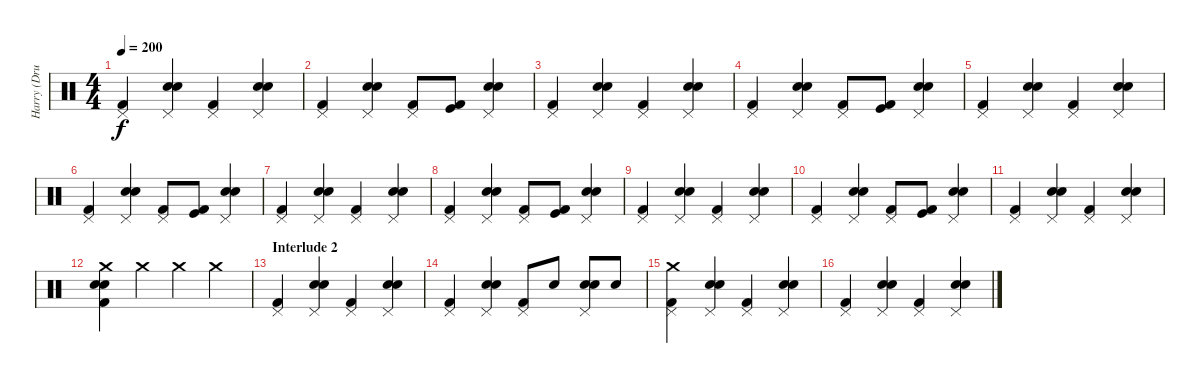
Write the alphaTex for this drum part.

\track ("Harry (Drums)" "Harry (Dru") {instrument percussion}
\staff {score}
\articulation defaults
\ts (4 4)
\tempo 200
\clef neutral
\ks c
("Kick (hit) 2" "Pedal Hi-Hat (hit)").4{dy f} ("Snare (hit) 2" "Electric Snare (hit)" "Pedal Hi-Hat (hit)").4 ("Kick (hit) 2" "Pedal Hi-Hat (hit)").4 ("Snare (hit) 2" "Electric Snare (hit)" "Pedal Hi-Hat (hit)").4 |
("Kick (hit) 2" "Pedal Hi-Hat (hit)").4 ("Snare (hit) 2" "Electric Snare (hit)" "Pedal Hi-Hat (hit)").4 ("Kick (hit) 2" "Pedal Hi-Hat (hit)").8 ("Kick (hit) 2" "Kick (hit)").8 ("Snare (hit) 2" "Electric Snare (hit)" "Pedal Hi-Hat (hit)").4 |
("Kick (hit) 2" "Pedal Hi-Hat (hit)").4 ("Snare (hit) 2" "Electric Snare (hit)" "Pedal Hi-Hat (hit)").4 ("Kick (hit) 2" "Pedal Hi-Hat (hit)").4 ("Snare (hit) 2" "Electric Snare (hit)" "Pedal Hi-Hat (hit)").4 |
("Kick (hit) 2" "Pedal Hi-Hat (hit)").4 ("Snare (hit) 2" "Electric Snare (hit)" "Pedal Hi-Hat (hit)").4 ("Kick (hit) 2" "Pedal Hi-Hat (hit)").8 ("Kick (hit) 2" "Kick (hit)").8 ("Snare (hit) 2" "Electric Snare (hit)" "Pedal Hi-Hat (hit)").4 |
("Kick (hit) 2" "Pedal Hi-Hat (hit)").4 ("Snare (hit) 2" "Electric Snare (hit)" "Pedal Hi-Hat (hit)").4 ("Kick (hit) 2" "Pedal Hi-Hat (hit)").4 ("Snare (hit) 2" "Electric Snare (hit)" "Pedal Hi-Hat (hit)").4 |
("Kick (hit) 2" "Pedal Hi-Hat (hit)").4 ("Snare (hit) 2" "Electric Snare (hit)" "Pedal Hi-Hat (hit)").4 ("Kick (hit) 2" "Pedal Hi-Hat (hit)").8 ("Kick (hit) 2" "Kick (hit)").8 ("Snare (hit) 2" "Electric Snare (hit)" "Pedal Hi-Hat (hit)").4 |
("Kick (hit) 2" "Pedal Hi-Hat (hit)").4 ("Snare (hit) 2" "Electric Snare (hit)" "Pedal Hi-Hat (hit)").4 ("Kick (hit) 2" "Pedal Hi-Hat (hit)").4 ("Snare (hit) 2" "Electric Snare (hit)" "Pedal Hi-Hat (hit)").4 |
("Kick (hit) 2" "Pedal Hi-Hat (hit)").4 ("Snare (hit) 2" "Electric Snare (hit)" "Pedal Hi-Hat (hit)").4 ("Kick (hit) 2" "Pedal Hi-Hat (hit)").8 ("Kick (hit) 2" "Kick (hit)").8 ("Snare (hit) 2" "Electric Snare (hit)" "Pedal Hi-Hat (hit)").4 |
("Kick (hit) 2" "Pedal Hi-Hat (hit)").4 ("Snare (hit) 2" "Electric Snare (hit)" "Pedal Hi-Hat (hit)").4 ("Kick (hit) 2" "Pedal Hi-Hat (hit)").4 ("Snare (hit) 2" "Electric Snare (hit)" "Pedal Hi-Hat (hit)").4 |
("Kick (hit) 2" "Pedal Hi-Hat (hit)").4 ("Snare (hit) 2" "Electric Snare (hit)" "Pedal Hi-Hat (hit)").4 ("Kick (hit) 2" "Pedal Hi-Hat (hit)").8 ("Kick (hit) 2" "Kick (hit)").8 ("Snare (hit) 2" "Electric Snare (hit)" "Pedal Hi-Hat (hit)").4 |
("Kick (hit) 2" "Pedal Hi-Hat (hit)").4 ("Snare (hit) 2" "Electric Snare (hit)" "Pedal Hi-Hat (hit)").4 ("Kick (hit) 2" "Pedal Hi-Hat (hit)").4 ("Snare (hit) 2" "Electric Snare (hit)" "Pedal Hi-Hat (hit)").4 |
("Kick (hit) 2" "Electric Snare (hit)" "Snare (hit) 2" "Crash medium (hit)").4 "Crash medium (hit)".4 "Crash medium (hit)".4 "Crash medium (hit)".4 |
\section ("" "Interlude 2")
("Kick (hit) 2" "Pedal Hi-Hat (hit)").4 ("Snare (hit) 2" "Electric Snare (hit)" "Pedal Hi-Hat (hit)").4 ("Kick (hit) 2" "Pedal Hi-Hat (hit)").4 ("Snare (hit) 2" "Electric Snare (hit)" "Pedal Hi-Hat (hit)").4 |
("Kick (hit) 2" "Pedal Hi-Hat (hit)").4 ("Snare (hit) 2" "Electric Snare (hit)" "Pedal Hi-Hat (hit)").4 ("Kick (hit) 2" "Pedal Hi-Hat (hit)").8 "Snare (hit) 2".8 ("Snare (hit) 2" "Electric Snare (hit)" "Pedal Hi-Hat (hit)").8 "Snare (hit) 2".8 |
("Kick (hit) 2" "Pedal Hi-Hat (hit)" "Crash medium (hit)").4 ("Snare (hit) 2" "Electric Snare (hit)" "Pedal Hi-Hat (hit)").4 ("Kick (hit) 2" "Pedal Hi-Hat (hit)").4 ("Snare (hit) 2" "Electric Snare (hit)" "Pedal Hi-Hat (hit)").4 |
("Kick (hit) 2" "Pedal Hi-Hat (hit)").4 ("Snare (hit) 2" "Electric Snare (hit)" "Pedal Hi-Hat (hit)").4 ("Kick (hit) 2" "Pedal Hi-Hat (hit)").4 ("Snare (hit) 2" "Electric Snare (hit)" "Pedal Hi-Hat (hit)").4
